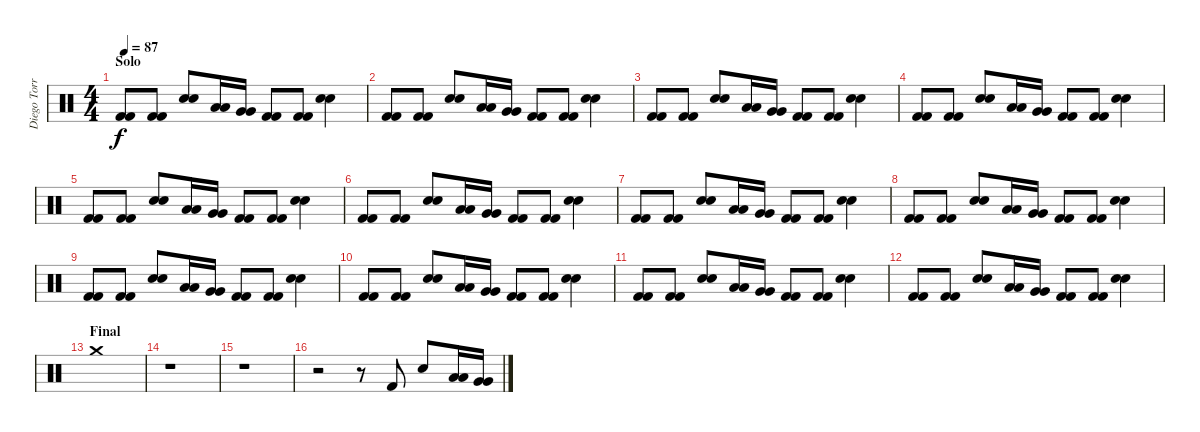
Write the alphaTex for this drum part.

\track ("Diego Torres [Bateria]" "Diego Torr") {instrument percussion}
\staff {score}
\articulation defaults
\ts (4 4)
\section ("" "Solo")
\tempo 87
\clef neutral
\ks c
("Kick (hit) 2" "Kick (hit) 2").8{dy f} ("Kick (hit) 2" "Kick (hit) 2").8 ("Electric Snare (hit)" "Electric Snare (hit)").8 ("Low Tom (hit)" "Low Tom (hit)").16 ("Very Low Tom (hit)" "Very Low Tom (hit)").16 ("Kick (hit) 2" "Kick (hit) 2").8 ("Kick (hit) 2" "Kick (hit) 2").8 ("Electric Snare (hit)" "Electric Snare (hit)").4 |
("Kick (hit) 2" "Kick (hit) 2").8 ("Kick (hit) 2" "Kick (hit) 2").8 ("Electric Snare (hit)" "Electric Snare (hit)").8 ("Low Tom (hit)" "Low Tom (hit)").16 ("Very Low Tom (hit)" "Very Low Tom (hit)").16 ("Kick (hit) 2" "Kick (hit) 2").8 ("Kick (hit) 2" "Kick (hit) 2").8 ("Electric Snare (hit)" "Electric Snare (hit)").4 |
("Kick (hit) 2" "Kick (hit) 2").8 ("Kick (hit) 2" "Kick (hit) 2").8 ("Electric Snare (hit)" "Electric Snare (hit)").8 ("Low Tom (hit)" "Low Tom (hit)").16 ("Very Low Tom (hit)" "Very Low Tom (hit)").16 ("Kick (hit) 2" "Kick (hit) 2").8 ("Kick (hit) 2" "Kick (hit) 2").8 ("Electric Snare (hit)" "Electric Snare (hit)").4 |
("Kick (hit) 2" "Kick (hit) 2").8 ("Kick (hit) 2" "Kick (hit) 2").8 ("Electric Snare (hit)" "Electric Snare (hit)").8 ("Low Tom (hit)" "Low Tom (hit)").16 ("Very Low Tom (hit)" "Very Low Tom (hit)").16 ("Kick (hit) 2" "Kick (hit) 2").8 ("Kick (hit) 2" "Kick (hit) 2").8 ("Electric Snare (hit)" "Electric Snare (hit)").4 |
("Kick (hit) 2" "Kick (hit) 2").8 ("Kick (hit) 2" "Kick (hit) 2").8 ("Electric Snare (hit)" "Electric Snare (hit)").8 ("Low Tom (hit)" "Low Tom (hit)").16 ("Very Low Tom (hit)" "Very Low Tom (hit)").16 ("Kick (hit) 2" "Kick (hit) 2").8 ("Kick (hit) 2" "Kick (hit) 2").8 ("Electric Snare (hit)" "Electric Snare (hit)").4 |
("Kick (hit) 2" "Kick (hit) 2").8 ("Kick (hit) 2" "Kick (hit) 2").8 ("Electric Snare (hit)" "Electric Snare (hit)").8 ("Low Tom (hit)" "Low Tom (hit)").16 ("Very Low Tom (hit)" "Very Low Tom (hit)").16 ("Kick (hit) 2" "Kick (hit) 2").8 ("Kick (hit) 2" "Kick (hit) 2").8 ("Electric Snare (hit)" "Electric Snare (hit)").4 |
("Kick (hit) 2" "Kick (hit) 2").8 ("Kick (hit) 2" "Kick (hit) 2").8 ("Electric Snare (hit)" "Electric Snare (hit)").8 ("Low Tom (hit)" "Low Tom (hit)").16 ("Very Low Tom (hit)" "Very Low Tom (hit)").16 ("Kick (hit) 2" "Kick (hit) 2").8 ("Kick (hit) 2" "Kick (hit) 2").8 ("Electric Snare (hit)" "Electric Snare (hit)").4 |
("Kick (hit) 2" "Kick (hit) 2").8 ("Kick (hit) 2" "Kick (hit) 2").8 ("Electric Snare (hit)" "Electric Snare (hit)").8 ("Low Tom (hit)" "Low Tom (hit)").16 ("Very Low Tom (hit)" "Very Low Tom (hit)").16 ("Kick (hit) 2" "Kick (hit) 2").8 ("Kick (hit) 2" "Kick (hit) 2").8 ("Electric Snare (hit)" "Electric Snare (hit)").4 |
("Kick (hit) 2" "Kick (hit) 2").8 ("Kick (hit) 2" "Kick (hit) 2").8 ("Electric Snare (hit)" "Electric Snare (hit)").8 ("Low Tom (hit)" "Low Tom (hit)").16 ("Very Low Tom (hit)" "Very Low Tom (hit)").16 ("Kick (hit) 2" "Kick (hit) 2").8 ("Kick (hit) 2" "Kick (hit) 2").8 ("Electric Snare (hit)" "Electric Snare (hit)").4 |
("Kick (hit) 2" "Kick (hit) 2").8 ("Kick (hit) 2" "Kick (hit) 2").8 ("Electric Snare (hit)" "Electric Snare (hit)").8 ("Low Tom (hit)" "Low Tom (hit)").16 ("Very Low Tom (hit)" "Very Low Tom (hit)").16 ("Kick (hit) 2" "Kick (hit) 2").8 ("Kick (hit) 2" "Kick (hit) 2").8 ("Electric Snare (hit)" "Electric Snare (hit)").4 |
("Kick (hit) 2" "Kick (hit) 2").8 ("Kick (hit) 2" "Kick (hit) 2").8 ("Electric Snare (hit)" "Electric Snare (hit)").8 ("Low Tom (hit)" "Low Tom (hit)").16 ("Very Low Tom (hit)" "Very Low Tom (hit)").16 ("Kick (hit) 2" "Kick (hit) 2").8 ("Kick (hit) 2" "Kick (hit) 2").8 ("Electric Snare (hit)" "Electric Snare (hit)").4 |
("Kick (hit) 2" "Kick (hit) 2").8 ("Kick (hit) 2" "Kick (hit) 2").8 ("Electric Snare (hit)" "Electric Snare (hit)").8 ("Low Tom (hit)" "Low Tom (hit)").16 ("Very Low Tom (hit)" "Very Low Tom (hit)").16 ("Kick (hit) 2" "Kick (hit) 2").8 ("Kick (hit) 2" "Kick (hit) 2").8 ("Electric Snare (hit)" "Electric Snare (hit)").4 |
\section ("" "Final")
"Crash medium (hit)".1 |
r.1 |
r.1 |
r.2 r.8 "Kick (hit) 2".8 "Electric Snare (hit)".8 ("Low Tom (hit)" "Low Tom (hit)").16 ("Very Low Tom (hit)" "Very Low Tom (hit)").16
